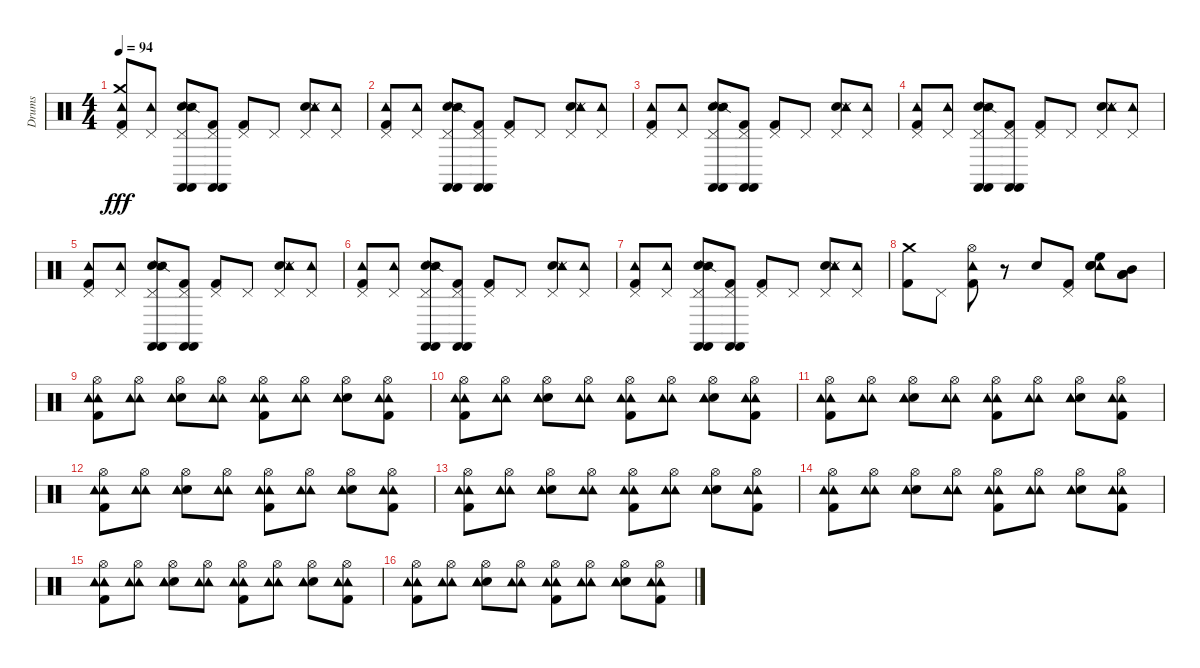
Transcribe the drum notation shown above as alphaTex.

\track ("Drums" "Drums") {instrument percussion}
\staff {score}
\articulation defaults
\ts (4 4)
\tempo 94
\clef neutral
\ks c
("Pedal Hi-Hat (hit)" "Kick (hit) 2" "Crash medium (hit)" "Tambourine (hit)").8{dy fff} ("Pedal Hi-Hat (hit)" "Tambourine (hit)").8 ("Pedal Hi-Hat (hit)" "Electric Snare (hit)" "Snare (side stick) 2" "Castanets (hit)" "Castanets (hit)").8 ("Pedal Hi-Hat (hit)" "Kick (hit) 2" "Castanets (hit)" "Castanets (hit)").8 ("Pedal Hi-Hat (hit)" "Kick (hit) 2").8 "Pedal Hi-Hat (hit)".8 ("Pedal Hi-Hat (hit)" "Electric Snare (hit)" "Metronome (hit)" "Tambourine (hit)").8 ("Pedal Hi-Hat (hit)" "Tambourine (hit)").8 |
("Pedal Hi-Hat (hit)" "Kick (hit) 2" "Tambourine (hit)").8 ("Pedal Hi-Hat (hit)" "Tambourine (hit)").8 ("Pedal Hi-Hat (hit)" "Electric Snare (hit)" "Snare (side stick) 2" "Castanets (hit)" "Castanets (hit)").8 ("Pedal Hi-Hat (hit)" "Kick (hit) 2" "Castanets (hit)" "Castanets (hit)").8 ("Pedal Hi-Hat (hit)" "Kick (hit) 2").8 "Pedal Hi-Hat (hit)".8 ("Pedal Hi-Hat (hit)" "Electric Snare (hit)" "Metronome (hit)" "Tambourine (hit)").8 ("Pedal Hi-Hat (hit)" "Tambourine (hit)").8 |
("Pedal Hi-Hat (hit)" "Kick (hit) 2" "Tambourine (hit)").8 ("Pedal Hi-Hat (hit)" "Tambourine (hit)").8 ("Pedal Hi-Hat (hit)" "Electric Snare (hit)" "Snare (side stick) 2" "Castanets (hit)" "Castanets (hit)").8 ("Pedal Hi-Hat (hit)" "Kick (hit) 2" "Castanets (hit)" "Castanets (hit)").8 ("Pedal Hi-Hat (hit)" "Kick (hit) 2").8 "Pedal Hi-Hat (hit)".8 ("Pedal Hi-Hat (hit)" "Electric Snare (hit)" "Metronome (hit)" "Tambourine (hit)").8 ("Pedal Hi-Hat (hit)" "Tambourine (hit)").8 |
("Pedal Hi-Hat (hit)" "Kick (hit) 2" "Tambourine (hit)").8 ("Pedal Hi-Hat (hit)" "Tambourine (hit)").8 ("Pedal Hi-Hat (hit)" "Electric Snare (hit)" "Snare (side stick) 2" "Castanets (hit)" "Castanets (hit)").8 ("Pedal Hi-Hat (hit)" "Kick (hit) 2" "Castanets (hit)" "Castanets (hit)").8 ("Pedal Hi-Hat (hit)" "Kick (hit) 2").8 "Pedal Hi-Hat (hit)".8 ("Pedal Hi-Hat (hit)" "Electric Snare (hit)" "Metronome (hit)" "Tambourine (hit)").8 ("Pedal Hi-Hat (hit)" "Tambourine (hit)").8 |
("Pedal Hi-Hat (hit)" "Kick (hit) 2" "Tambourine (hit)").8 ("Pedal Hi-Hat (hit)" "Tambourine (hit)").8 ("Pedal Hi-Hat (hit)" "Electric Snare (hit)" "Snare (side stick) 2" "Castanets (hit)" "Castanets (hit)").8 ("Pedal Hi-Hat (hit)" "Kick (hit) 2" "Castanets (hit)" "Castanets (hit)").8 ("Pedal Hi-Hat (hit)" "Kick (hit) 2").8 "Pedal Hi-Hat (hit)".8 ("Pedal Hi-Hat (hit)" "Electric Snare (hit)" "Metronome (hit)" "Tambourine (hit)").8 ("Pedal Hi-Hat (hit)" "Tambourine (hit)").8 |
("Pedal Hi-Hat (hit)" "Kick (hit) 2" "Tambourine (hit)").8 ("Pedal Hi-Hat (hit)" "Tambourine (hit)").8 ("Pedal Hi-Hat (hit)" "Electric Snare (hit)" "Snare (side stick) 2" "Castanets (hit)" "Castanets (hit)").8 ("Pedal Hi-Hat (hit)" "Kick (hit) 2" "Castanets (hit)" "Castanets (hit)").8 ("Pedal Hi-Hat (hit)" "Kick (hit) 2").8 "Pedal Hi-Hat (hit)".8 ("Pedal Hi-Hat (hit)" "Electric Snare (hit)" "Metronome (hit)" "Tambourine (hit)").8 ("Pedal Hi-Hat (hit)" "Tambourine (hit)").8 |
("Pedal Hi-Hat (hit)" "Kick (hit) 2" "Tambourine (hit)").8 ("Pedal Hi-Hat (hit)" "Tambourine (hit)").8 ("Pedal Hi-Hat (hit)" "Electric Snare (hit)" "Snare (side stick) 2" "Castanets (hit)" "Castanets (hit)").8 ("Pedal Hi-Hat (hit)" "Kick (hit) 2" "Castanets (hit)" "Castanets (hit)").8 ("Pedal Hi-Hat (hit)" "Kick (hit) 2").8 "Pedal Hi-Hat (hit)".8 ("Pedal Hi-Hat (hit)" "Electric Snare (hit)" "Metronome (hit)" "Tambourine (hit)").8 ("Pedal Hi-Hat (hit)" "Tambourine (hit)").8 |
("Kick (hit) 2" "Crash medium (hit)").8 "Pedal Hi-Hat (hit)".8 ("Hi-Hat (open)" "Kick (hit) 2" "Tambourine (hit)").8 r.8 "Electric Snare (hit)".8 ("Pedal Hi-Hat (hit)" "Kick (hit) 2").8 ("Tambourine (hit)" "Electric Snare (hit)" "High Floor Tom (hit)" "Electric Snare (hit)").8 ("Mid Tom (hit)" "Low Floor Tom (hit)" "Low Floor Tom (hit)").8 |
("Hi-Hat (open)" "Kick (hit) 2" "Tambourine (hit)" "Tambourine (hit)").8 ("Hi-Hat (open)" "Tambourine (hit)" "Tambourine (hit)").8 ("Hi-Hat (open)" "Snare (hit) 2" "Tambourine (hit)" "Tambourine (hit)").8 ("Hi-Hat (open)" "Tambourine (hit)" "Tambourine (hit)").8 ("Hi-Hat (open)" "Kick (hit) 2" "Tambourine (hit)" "Tambourine (hit)").8 ("Hi-Hat (open)" "Tambourine (hit)" "Tambourine (hit)").8 ("Hi-Hat (open)" "Snare (hit) 2" "Tambourine (hit)" "Tambourine (hit)").8 ("Hi-Hat (open)" "Kick (hit) 2" "Tambourine (hit)" "Tambourine (hit)").8 |
("Hi-Hat (open)" "Kick (hit) 2" "Tambourine (hit)" "Tambourine (hit)").8 ("Hi-Hat (open)" "Tambourine (hit)" "Tambourine (hit)").8 ("Hi-Hat (open)" "Snare (hit) 2" "Tambourine (hit)" "Tambourine (hit)").8 ("Hi-Hat (open)" "Tambourine (hit)" "Tambourine (hit)").8 ("Hi-Hat (open)" "Kick (hit) 2" "Tambourine (hit)" "Tambourine (hit)").8 ("Hi-Hat (open)" "Tambourine (hit)" "Tambourine (hit)").8 ("Hi-Hat (open)" "Snare (hit) 2" "Tambourine (hit)" "Tambourine (hit)").8 ("Hi-Hat (open)" "Kick (hit) 2" "Tambourine (hit)" "Tambourine (hit)").8 |
("Hi-Hat (open)" "Kick (hit) 2" "Tambourine (hit)" "Tambourine (hit)").8 ("Hi-Hat (open)" "Tambourine (hit)" "Tambourine (hit)").8 ("Hi-Hat (open)" "Snare (hit) 2" "Tambourine (hit)" "Tambourine (hit)").8 ("Hi-Hat (open)" "Tambourine (hit)" "Tambourine (hit)").8 ("Hi-Hat (open)" "Kick (hit) 2" "Tambourine (hit)" "Tambourine (hit)").8 ("Hi-Hat (open)" "Tambourine (hit)" "Tambourine (hit)").8 ("Hi-Hat (open)" "Snare (hit) 2" "Tambourine (hit)" "Tambourine (hit)").8 ("Hi-Hat (open)" "Kick (hit) 2" "Tambourine (hit)" "Tambourine (hit)").8 |
("Hi-Hat (open)" "Kick (hit) 2" "Tambourine (hit)" "Tambourine (hit)").8 ("Hi-Hat (open)" "Tambourine (hit)" "Tambourine (hit)").8 ("Hi-Hat (open)" "Snare (hit) 2" "Tambourine (hit)" "Tambourine (hit)").8 ("Hi-Hat (open)" "Tambourine (hit)" "Tambourine (hit)").8 ("Hi-Hat (open)" "Kick (hit) 2" "Tambourine (hit)" "Tambourine (hit)").8 ("Hi-Hat (open)" "Tambourine (hit)" "Tambourine (hit)").8 ("Hi-Hat (open)" "Snare (hit) 2" "Tambourine (hit)" "Tambourine (hit)").8 ("Hi-Hat (open)" "Kick (hit) 2" "Tambourine (hit)" "Tambourine (hit)").8 |
("Hi-Hat (open)" "Kick (hit) 2" "Tambourine (hit)" "Tambourine (hit)").8 ("Hi-Hat (open)" "Tambourine (hit)" "Tambourine (hit)").8 ("Hi-Hat (open)" "Snare (hit) 2" "Tambourine (hit)" "Tambourine (hit)").8 ("Hi-Hat (open)" "Tambourine (hit)" "Tambourine (hit)").8 ("Hi-Hat (open)" "Kick (hit) 2" "Tambourine (hit)" "Tambourine (hit)").8 ("Hi-Hat (open)" "Tambourine (hit)" "Tambourine (hit)").8 ("Hi-Hat (open)" "Snare (hit) 2" "Tambourine (hit)" "Tambourine (hit)").8 ("Hi-Hat (open)" "Kick (hit) 2" "Tambourine (hit)" "Tambourine (hit)").8 |
("Hi-Hat (open)" "Kick (hit) 2" "Tambourine (hit)" "Tambourine (hit)").8 ("Hi-Hat (open)" "Tambourine (hit)" "Tambourine (hit)").8 ("Hi-Hat (open)" "Snare (hit) 2" "Tambourine (hit)" "Tambourine (hit)").8 ("Hi-Hat (open)" "Tambourine (hit)" "Tambourine (hit)").8 ("Hi-Hat (open)" "Kick (hit) 2" "Tambourine (hit)" "Tambourine (hit)").8 ("Hi-Hat (open)" "Tambourine (hit)" "Tambourine (hit)").8 ("Hi-Hat (open)" "Snare (hit) 2" "Tambourine (hit)" "Tambourine (hit)").8 ("Hi-Hat (open)" "Kick (hit) 2" "Tambourine (hit)" "Tambourine (hit)").8 |
("Hi-Hat (open)" "Kick (hit) 2" "Tambourine (hit)" "Tambourine (hit)").8 ("Hi-Hat (open)" "Tambourine (hit)" "Tambourine (hit)").8 ("Hi-Hat (open)" "Snare (hit) 2" "Tambourine (hit)" "Tambourine (hit)").8 ("Hi-Hat (open)" "Tambourine (hit)" "Tambourine (hit)").8 ("Hi-Hat (open)" "Kick (hit) 2" "Tambourine (hit)" "Tambourine (hit)").8 ("Hi-Hat (open)" "Tambourine (hit)" "Tambourine (hit)").8 ("Hi-Hat (open)" "Snare (hit) 2" "Tambourine (hit)" "Tambourine (hit)").8 ("Hi-Hat (open)" "Kick (hit) 2" "Tambourine (hit)" "Tambourine (hit)").8 |
("Hi-Hat (open)" "Kick (hit) 2" "Tambourine (hit)" "Tambourine (hit)").8 ("Hi-Hat (open)" "Tambourine (hit)" "Tambourine (hit)").8 ("Hi-Hat (open)" "Snare (hit) 2" "Tambourine (hit)" "Tambourine (hit)").8 ("Hi-Hat (open)" "Tambourine (hit)" "Tambourine (hit)").8 ("Hi-Hat (open)" "Kick (hit) 2" "Tambourine (hit)" "Tambourine (hit)").8 ("Hi-Hat (open)" "Tambourine (hit)" "Tambourine (hit)").8 ("Hi-Hat (open)" "Snare (hit) 2" "Tambourine (hit)" "Tambourine (hit)").8 ("Hi-Hat (open)" "Kick (hit) 2" "Tambourine (hit)" "Tambourine (hit)").8
